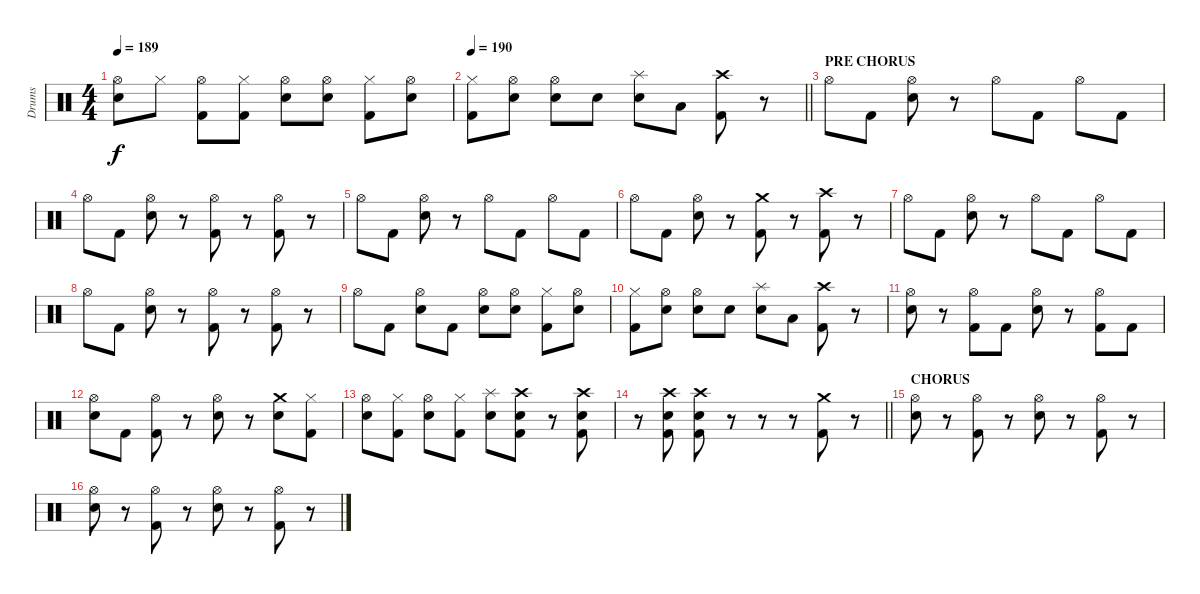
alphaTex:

\track ("Drums" "Drums") {instrument percussion}
\staff {score}
\articulation defaults
\ts (4 4)
\tempo 189
\clef neutral
\ks c
("Snare (hit) 2" "Hi-Hat (open)").8{dy f} "Hi-Hat (closed)".8 ("Kick (hit) 2" "Hi-Hat (open)").8 ("Kick (hit) 2" "Hi-Hat (closed)").8 ("Snare (hit) 2" "Hi-Hat (open)").8 ("Snare (hit) 2" "Hi-Hat (open)").8 ("Kick (hit) 2" "Hi-Hat (closed)").8 ("Snare (hit) 2" "Hi-Hat (open)").8 |
\tempo 190
\barLineRight lightlight
("Kick (hit) 2" "Hi-Hat (closed)").8 ("Snare (hit) 2" "Hi-Hat (open)").8 ("Snare (hit) 2" "Hi-Hat (open)").8 "Snare (hit) 2".8 ("Snare (hit) 2" "Splash (hit)").8 "Low Floor Tom (hit)".8 ("Kick (hit) 2" "Crash high (hit)").8 r.8 |
\section ("" "PRE CHORUS")
"Hi-Hat (open)".8 "Kick (hit) 2".8 ("Snare (hit) 2" "Hi-Hat (open)").8 r.8 "Hi-Hat (open)".8 "Kick (hit) 2".8 "Hi-Hat (open)".8 "Kick (hit) 2".8 |
"Hi-Hat (open)".8 "Kick (hit) 2".8 ("Snare (hit) 2" "Hi-Hat (open)").8 r.8 ("Kick (hit) 2" "Hi-Hat (open)").8 r.8 ("Kick (hit) 2" "Hi-Hat (open)").8 r.8 |
"Hi-Hat (open)".8 "Kick (hit) 2".8 ("Snare (hit) 2" "Hi-Hat (open)").8 r.8 "Hi-Hat (open)".8 "Kick (hit) 2".8 "Hi-Hat (open)".8 "Kick (hit) 2".8 |
"Hi-Hat (open)".8 "Kick (hit) 2".8 ("Snare (hit) 2" "Hi-Hat (open)").8 r.8 ("Kick (hit) 2" "Crash medium (hit)").8 r.8 ("Kick (hit) 2" "Crash high (hit)").8 r.8 |
"Hi-Hat (open)".8 "Kick (hit) 2".8 ("Snare (hit) 2" "Hi-Hat (open)").8 r.8 "Hi-Hat (open)".8 "Kick (hit) 2".8 "Hi-Hat (open)".8 "Kick (hit) 2".8 |
"Hi-Hat (open)".8 "Kick (hit) 2".8 ("Snare (hit) 2" "Hi-Hat (open)").8 r.8 ("Kick (hit) 2" "Hi-Hat (open)").8 r.8 ("Kick (hit) 2" "Hi-Hat (open)").8 r.8 |
"Hi-Hat (open)".8 "Kick (hit) 2".8 ("Snare (hit) 2" "Hi-Hat (open)").8 "Kick (hit) 2".8 ("Snare (hit) 2" "Hi-Hat (open)").8 ("Snare (hit) 2" "Hi-Hat (open)").8 ("Kick (hit) 2" "Hi-Hat (closed)").8 ("Snare (hit) 2" "Hi-Hat (open)").8 |
("Kick (hit) 2" "Hi-Hat (closed)").8 ("Snare (hit) 2" "Hi-Hat (open)").8 ("Snare (hit) 2" "Hi-Hat (open)").8 "Snare (hit) 2".8 ("Snare (hit) 2" "Splash (hit)").8 "Low Floor Tom (hit)".8 ("Kick (hit) 2" "Crash high (hit)").8 r.8 |
("Snare (hit) 2" "Hi-Hat (open)").8 r.8 ("Kick (hit) 2" "Hi-Hat (open)").8 "Kick (hit) 2".8 ("Snare (hit) 2" "Hi-Hat (open)").8 r.8 ("Kick (hit) 2" "Hi-Hat (open)").8 "Kick (hit) 2".8 |
("Snare (hit) 2" "Hi-Hat (open)").8 "Kick (hit) 2".8 ("Kick (hit) 2" "Hi-Hat (open)").8 r.8 ("Snare (hit) 2" "Hi-Hat (open)").8 r.8 ("Snare (hit) 2" "Crash medium (hit)").8 ("Kick (hit) 2" "Hi-Hat (closed)").8 |
("Snare (hit) 2" "Hi-Hat (open)").8 ("Kick (hit) 2" "Hi-Hat (closed)").8 ("Snare (hit) 2" "Hi-Hat (open)").8 ("Kick (hit) 2" "Hi-Hat (closed)").8 ("Snare (hit) 2" "Splash (hit)").8 ("Snare (hit) 2" "Kick (hit) 2" "Crash high (hit)").8 r.8{volume 0} ("Snare (hit) 2" "Kick (hit) 2" "Crash high (hit)").8{volume 13} |
\barLineRight lightlight
r.8{volume 0} ("Snare (hit) 2" "Kick (hit) 2" "Crash high (hit)").8{volume 13} ("Snare (hit) 2" "Kick (hit) 2" "Crash high (hit)").8 r.8 r.8 r.8 ("Crash medium (hit)" "Kick (hit) 2").8 r.8 |
\section ("" "CHORUS")
("Snare (hit) 2" "Hi-Hat (open)").8 r.8 ("Kick (hit) 2" "Hi-Hat (open)").8 r.8 ("Snare (hit) 2" "Hi-Hat (open)").8 r.8 ("Kick (hit) 2" "Hi-Hat (open)").8 r.8 |
("Snare (hit) 2" "Hi-Hat (open)").8 r.8 ("Kick (hit) 2" "Hi-Hat (open)").8 r.8 ("Snare (hit) 2" "Hi-Hat (open)").8 r.8 ("Kick (hit) 2" "Hi-Hat (open)").8 r.8
